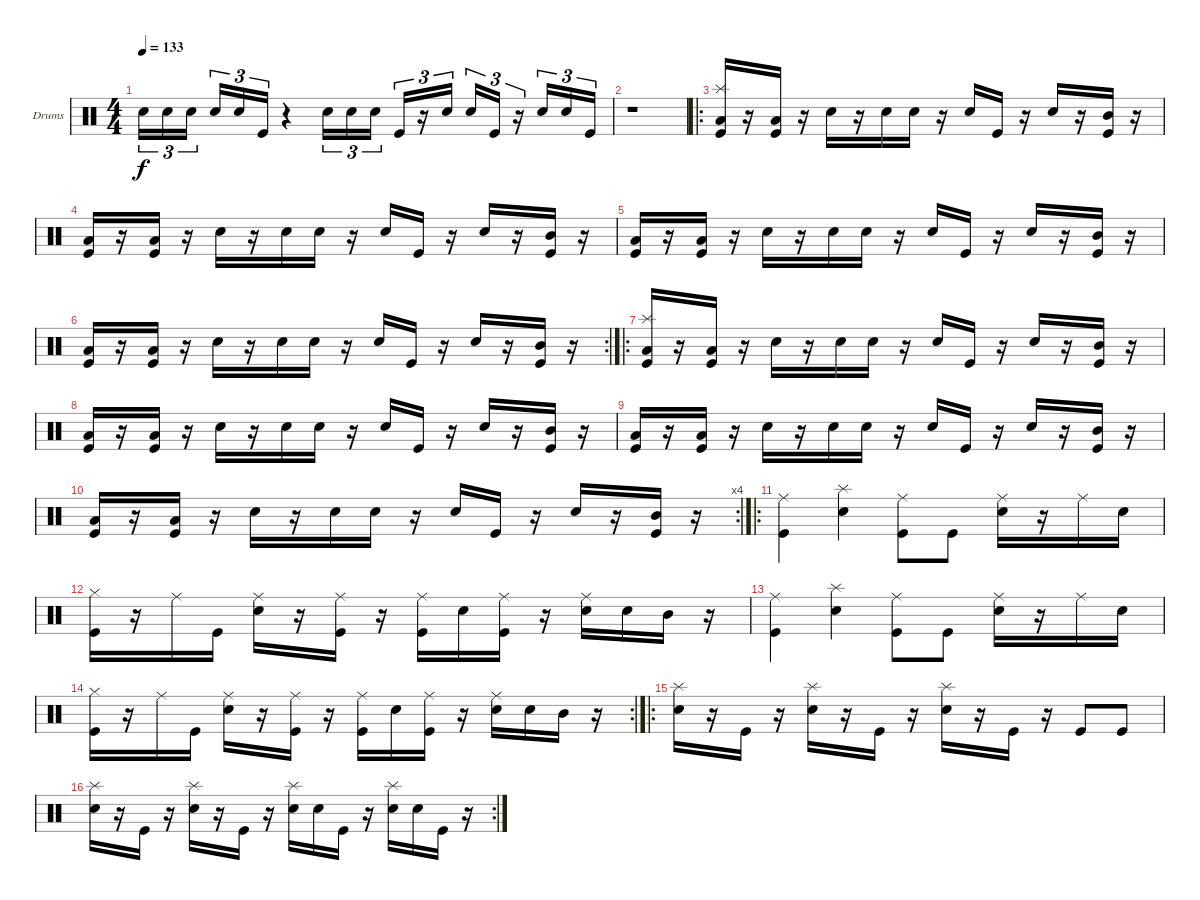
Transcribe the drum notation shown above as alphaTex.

\bracketExtendMode groupsimilarinstruments
\firstSystemTrackNameOrientation horizontal
\otherSystemsTrackNameOrientation horizontal
\track ("Drumkit" "Drums") {instrument percussion}
\staff {score}
\articulation defaults
\ts (4 4)
\tempo 133
\clef neutral
\ks c "Snare (hit) 2".16{tu (3 2) dy f} "Snare (hit) 2".16{tu (3 2)} "Snare (hit) 2".16{tu (3 2)} "Snare (hit) 2".16{tu (3 2)} "Snare (hit) 2".16{tu (3 2)} "Kick (hit)".16{tu (3 2)}
r.4 "Snare (hit) 2".16{tu (3 2)} "Snare (hit) 2".16{tu (3 2)} "Snare (hit) 2".16{tu (3 2)} "Kick (hit)".16{tu (3 2)} r.16{tu (3 2)} "Snare (hit) 2".16{tu (3 2)} "Snare (hit) 2".16{tu (3 2)} "Kick (hit)".16{tu (3 2)} r.16{tu (3 2)} "Snare (hit) 2".16{tu (3 2)} "Snare (hit) 2".16{tu (3 2)} "Kick (hit)".16{tu (3 2)} |
r.1 |
\ro
("Splash (hit)" "Kick (hit)" "Low Tom (hit)").16 r.16 ("Kick (hit)" "Low Tom (hit)").16 r.16 "Snare (hit) 2".16 r.16 "Snare (hit) 2".16 "Snare (hit) 2".16 r.16 "Snare (hit) 2".16 "Kick (hit)".16 r.16 "Snare (hit) 2".16 r.16 ("Kick (hit)" "Mid Tom (hit)").16 r.16 |
("Kick (hit)" "Low Tom (hit)").16 r.16 ("Kick (hit)" "Low Tom (hit)").16 r.16 "Snare (hit) 2".16 r.16 "Snare (hit) 2".16 "Snare (hit) 2".16 r.16 "Snare (hit) 2".16 "Kick (hit)".16 r.16 "Snare (hit) 2".16 r.16 ("Kick (hit)" "Mid Tom (hit)").16 r.16 |
("Kick (hit)" "Low Tom (hit)").16 r.16 ("Kick (hit)" "Low Tom (hit)").16 r.16 "Snare (hit) 2".16 r.16 "Snare (hit) 2".16 "Snare (hit) 2".16 r.16 "Snare (hit) 2".16 "Kick (hit)".16 r.16 "Snare (hit) 2".16 r.16 ("Kick (hit)" "Mid Tom (hit)").16 r.16 |
\rc 2
("Kick (hit)" "Low Tom (hit)").16 r.16 ("Kick (hit)" "Low Tom (hit)").16 r.16 "Snare (hit) 2".16 r.16 "Snare (hit) 2".16 "Snare (hit) 2".16 r.16 "Snare (hit) 2".16 "Kick (hit)".16 r.16 "Snare (hit) 2".16 r.16 ("Kick (hit)" "Mid Tom (hit)").16 r.16 |
\ro
("Splash (hit)" "Kick (hit)" "Low Tom (hit)").16 r.16 ("Kick (hit)" "Low Tom (hit)").16 r.16 "Snare (hit) 2".16 r.16 "Snare (hit) 2".16 "Snare (hit) 2".16 r.16 "Snare (hit) 2".16 "Kick (hit)".16 r.16 "Snare (hit) 2".16 r.16 ("Kick (hit)" "Mid Tom (hit)").16 r.16 |
("Kick (hit)" "Low Tom (hit)").16 r.16 ("Kick (hit)" "Low Tom (hit)").16 r.16 "Snare (hit) 2".16 r.16 "Snare (hit) 2".16 "Snare (hit) 2".16 r.16 "Snare (hit) 2".16 "Kick (hit)".16 r.16 "Snare (hit) 2".16 r.16 ("Kick (hit)" "Mid Tom (hit)").16 r.16 |
("Kick (hit)" "Low Tom (hit)").16 r.16 ("Kick (hit)" "Low Tom (hit)").16 r.16 "Snare (hit) 2".16 r.16 "Snare (hit) 2".16 "Snare (hit) 2".16 r.16 "Snare (hit) 2".16 "Kick (hit)".16 r.16 "Snare (hit) 2".16 r.16 ("Kick (hit)" "Mid Tom (hit)").16 r.16 |
\rc 4
("Kick (hit)" "Low Tom (hit)").16 r.16 ("Kick (hit)" "Low Tom (hit)").16 r.16 "Snare (hit) 2".16 r.16 "Snare (hit) 2".16 "Snare (hit) 2".16 r.16 "Snare (hit) 2".16 "Kick (hit)".16 r.16 "Snare (hit) 2".16 r.16 ("Kick (hit)" "Mid Tom (hit)").16 r.16 |
\ro
("Kick (hit)" "Ride (middle)").4 ("Snare (hit) 2" "Splash (hit)").4 ("Kick (hit)" "Ride (middle)").8 "Kick (hit)".8 ("Snare (hit) 2" "Ride (middle)").16 r.16 "Ride (middle)".16 "Snare (hit) 2".16 |
("Kick (hit)" "Hi-Hat (closed)").16 r.16 "Ride (middle)".16 "Kick (hit)".16 ("Snare (hit) 2" "Ride (middle)").16 r.16 ("Kick (hit)" "Ride (middle)").16 r.16 ("Ride (middle)" "Kick (hit)").16 "Snare (hit) 2".16 ("Kick (hit)" "Ride (middle)").16 r.16 ("Snare (hit) 2" "Ride (middle)").16 "Snare (hit) 2".16 "Mid Tom (hit)".16 r.16 |
("Kick (hit)" "Ride (middle)").4 ("Snare (hit) 2" "Splash (hit)").4 ("Kick (hit)" "Ride (middle)").8 "Kick (hit)".8 ("Snare (hit) 2" "Ride (middle)").16 r.16 "Ride (middle)".16 "Snare (hit) 2".16 |
\rc 2
("Kick (hit)" "Hi-Hat (closed)").16 r.16 "Ride (middle)".16 "Kick (hit)".16 ("Snare (hit) 2" "Ride (middle)").16 r.16 ("Kick (hit)" "Ride (middle)").16 r.16 ("Ride (middle)" "Kick (hit)").16 "Snare (hit) 2".16 ("Kick (hit)" "Ride (middle)").16 r.16 ("Snare (hit) 2" "Ride (middle)").16 "Snare (hit) 2".16 "Mid Tom (hit)".16 r.16 |
\ro
("Splash (hit)" "Snare (hit) 2").16 r.16 "Kick (hit)".16 r.16 ("Splash (hit)" "Snare (hit) 2").16 r.16 "Kick (hit)".16 r.16 ("Splash (hit)" "Snare (hit) 2").16 r.16 "Kick (hit)".16 r.16 "Kick (hit)".8 "Kick (hit)".8 |
\rc 2
("Splash (hit)" "Snare (hit) 2").16 r.16 "Kick (hit)".16 r.16 ("Splash (hit)" "Snare (hit) 2").16 r.16 "Kick (hit)".16 r.16 ("Splash (hit)" "Snare (hit) 2").16 "Snare (hit) 2".16 "Kick (hit)".16 r.16 ("Splash (hit)" "Snare (hit) 2").16 "Snare (hit) 2".16 "Kick (hit)".16 r.16
